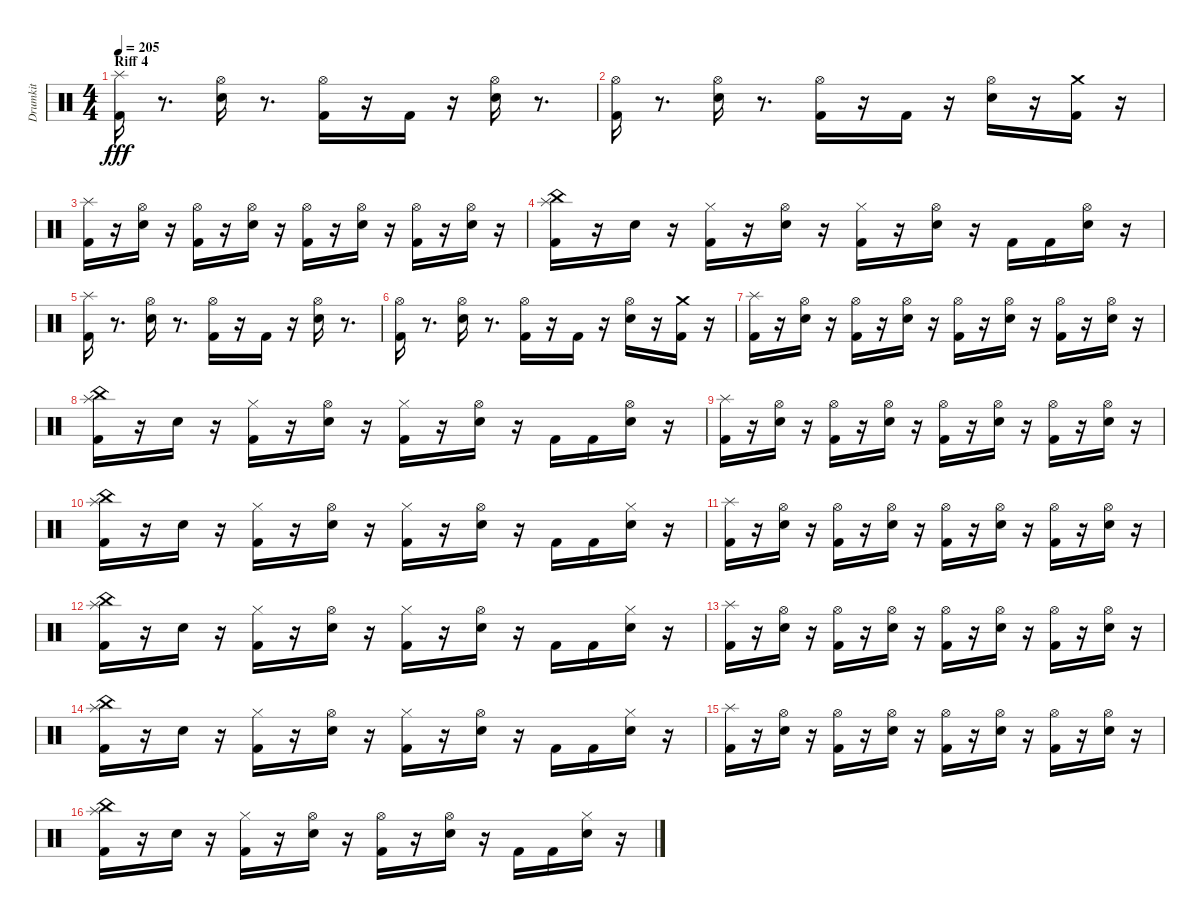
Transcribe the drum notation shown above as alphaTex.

\track ("Drumkit" "Drumkit") {instrument percussion}
\staff {score}
\articulation defaults
\ts (4 4)
\section ("" "Riff 4")
\tempo 205
\clef neutral
\ks c
("Kick (hit) 2" "Splash (hit)").16{dy fff} r.8{d} ("Snare (hit) 2" "Hi-Hat (open)").16 r.8{d} ("Kick (hit) 2" "Hi-Hat (open)").16 r.16 "Kick (hit) 2".16 r.16 ("Snare (hit) 2" "Hi-Hat (open)").16 r.8{d} |
("Kick (hit) 2" "Hi-Hat (open)").16 r.8{d} ("Snare (hit) 2" "Hi-Hat (open)").16 r.8{d} ("Kick (hit) 2" "Hi-Hat (open)").16 r.16 "Kick (hit) 2".16 r.16 ("Snare (hit) 2" "Hi-Hat (open)").16 r.16 ("Kick (hit) 2" "Crash medium (hit)").16 r.16 |
("Kick (hit) 2" "Splash (hit)").16 r.16 ("Snare (hit) 2" "Hi-Hat (open)").16 r.16 ("Kick (hit) 2" "Hi-Hat (open)").16 r.16 ("Snare (hit) 2" "Hi-Hat (open)").16 r.16 ("Kick (hit) 2" "Hi-Hat (open)").16 r.16 ("Snare (hit) 2" "Hi-Hat (open)").16 r.16 ("Kick (hit) 2" "Hi-Hat (open)").16 r.16 ("Snare (hit) 2" "Hi-Hat (open)").16 r.16 |
("Kick (hit) 2" "Splash (hit)" "China (hit)").16 r.16 "Snare (hit) 2".16 r.16 ("Kick (hit) 2" "Hi-Hat (closed)").16 r.16 ("Snare (hit) 2" "Hi-Hat (open)").16 r.16 ("Kick (hit) 2" "Hi-Hat (closed)").16 r.16 ("Snare (hit) 2" "Hi-Hat (open)").16 r.16 "Kick (hit) 2".16 "Kick (hit) 2".16 ("Snare (hit) 2" "Hi-Hat (open)").16 r.16 |
("Kick (hit) 2" "Splash (hit)").16 r.8{d} ("Snare (hit) 2" "Hi-Hat (open)").16 r.8{d} ("Kick (hit) 2" "Hi-Hat (open)").16 r.16 "Kick (hit) 2".16 r.16 ("Snare (hit) 2" "Hi-Hat (open)").16 r.8{d} |
("Kick (hit) 2" "Hi-Hat (open)").16 r.8{d} ("Snare (hit) 2" "Hi-Hat (open)").16 r.8{d} ("Kick (hit) 2" "Hi-Hat (open)").16 r.16 "Kick (hit) 2".16 r.16 ("Snare (hit) 2" "Hi-Hat (open)").16 r.16 ("Kick (hit) 2" "Crash medium (hit)").16 r.16 |
("Kick (hit) 2" "Splash (hit)").16 r.16 ("Snare (hit) 2" "Hi-Hat (open)").16 r.16 ("Kick (hit) 2" "Hi-Hat (open)").16 r.16 ("Snare (hit) 2" "Hi-Hat (open)").16 r.16 ("Kick (hit) 2" "Hi-Hat (open)").16 r.16 ("Snare (hit) 2" "Hi-Hat (open)").16 r.16 ("Kick (hit) 2" "Hi-Hat (open)").16 r.16 ("Snare (hit) 2" "Hi-Hat (open)").16 r.16 |
("Kick (hit) 2" "Splash (hit)" "China (hit)").16 r.16 "Snare (hit) 2".16 r.16 ("Kick (hit) 2" "Hi-Hat (closed)").16 r.16 ("Snare (hit) 2" "Hi-Hat (open)").16 r.16 ("Kick (hit) 2" "Hi-Hat (closed)").16 r.16 ("Snare (hit) 2" "Hi-Hat (open)").16 r.16 "Kick (hit) 2".16 "Kick (hit) 2".16 ("Snare (hit) 2" "Hi-Hat (open)").16 r.16 |
("Kick (hit) 2" "Splash (hit)").16 r.16 ("Snare (hit) 2" "Hi-Hat (open)").16 r.16 ("Kick (hit) 2" "Hi-Hat (open)").16 r.16 ("Snare (hit) 2" "Hi-Hat (open)").16 r.16 ("Kick (hit) 2" "Hi-Hat (open)").16 r.16 ("Snare (hit) 2" "Hi-Hat (open)").16 r.16 ("Kick (hit) 2" "Hi-Hat (open)").16 r.16 ("Snare (hit) 2" "Hi-Hat (open)").16 r.16 |
("Kick (hit) 2" "Splash (hit)" "China (hit)").16 r.16 "Snare (hit) 2".16 r.16 ("Kick (hit) 2" "Hi-Hat (closed)").16 r.16 ("Snare (hit) 2" "Hi-Hat (open)").16 r.16 ("Kick (hit) 2" "Hi-Hat (closed)").16 r.16 ("Snare (hit) 2" "Hi-Hat (open)").16 r.16 "Kick (hit) 2".16 "Kick (hit) 2".16 ("Snare (hit) 2" "Hi-Hat (closed)").16 r.16 |
("Kick (hit) 2" "Splash (hit)").16 r.16 ("Snare (hit) 2" "Hi-Hat (open)").16 r.16 ("Kick (hit) 2" "Hi-Hat (open)").16 r.16 ("Snare (hit) 2" "Hi-Hat (open)").16 r.16 ("Kick (hit) 2" "Hi-Hat (open)").16 r.16 ("Snare (hit) 2" "Hi-Hat (open)").16 r.16 ("Kick (hit) 2" "Hi-Hat (open)").16 r.16 ("Snare (hit) 2" "Hi-Hat (open)").16 r.16 |
("Kick (hit) 2" "Splash (hit)" "China (hit)").16 r.16 "Snare (hit) 2".16 r.16 ("Kick (hit) 2" "Hi-Hat (closed)").16 r.16 ("Snare (hit) 2" "Hi-Hat (open)").16 r.16 ("Kick (hit) 2" "Hi-Hat (closed)").16 r.16 ("Snare (hit) 2" "Hi-Hat (open)").16 r.16 "Kick (hit) 2".16 "Kick (hit) 2".16 ("Snare (hit) 2" "Hi-Hat (closed)").16 r.16 |
("Kick (hit) 2" "Splash (hit)").16 r.16 ("Snare (hit) 2" "Hi-Hat (open)").16 r.16 ("Kick (hit) 2" "Hi-Hat (open)").16 r.16 ("Snare (hit) 2" "Hi-Hat (open)").16 r.16 ("Kick (hit) 2" "Hi-Hat (open)").16 r.16 ("Snare (hit) 2" "Hi-Hat (open)").16 r.16 ("Kick (hit) 2" "Hi-Hat (open)").16 r.16 ("Snare (hit) 2" "Hi-Hat (open)").16 r.16 |
("Kick (hit) 2" "Splash (hit)" "China (hit)").16 r.16 "Snare (hit) 2".16 r.16 ("Kick (hit) 2" "Hi-Hat (closed)").16 r.16 ("Snare (hit) 2" "Hi-Hat (open)").16 r.16 ("Kick (hit) 2" "Hi-Hat (closed)").16 r.16 ("Snare (hit) 2" "Hi-Hat (open)").16 r.16 "Kick (hit) 2".16 "Kick (hit) 2".16 ("Snare (hit) 2" "Hi-Hat (closed)").16 r.16 |
("Kick (hit) 2" "Splash (hit)").16 r.16 ("Snare (hit) 2" "Hi-Hat (open)").16 r.16 ("Kick (hit) 2" "Hi-Hat (open)").16 r.16 ("Snare (hit) 2" "Hi-Hat (open)").16 r.16 ("Kick (hit) 2" "Hi-Hat (open)").16 r.16 ("Snare (hit) 2" "Hi-Hat (open)").16 r.16 ("Kick (hit) 2" "Hi-Hat (open)").16 r.16 ("Snare (hit) 2" "Hi-Hat (open)").16 r.16 |
("Kick (hit) 2" "Splash (hit)" "China (hit)").16 r.16 "Snare (hit) 2".16 r.16 ("Kick (hit) 2" "Hi-Hat (closed)").16 r.16 ("Snare (hit) 2" "Hi-Hat (open)").16 r.16 ("Kick (hit) 2" "Hi-Hat (open)").16 r.16 ("Snare (hit) 2" "Hi-Hat (open)").16 r.16 "Kick (hit) 2".16 "Kick (hit) 2".16 ("Snare (hit) 2" "Hi-Hat (closed)").16 r.16
